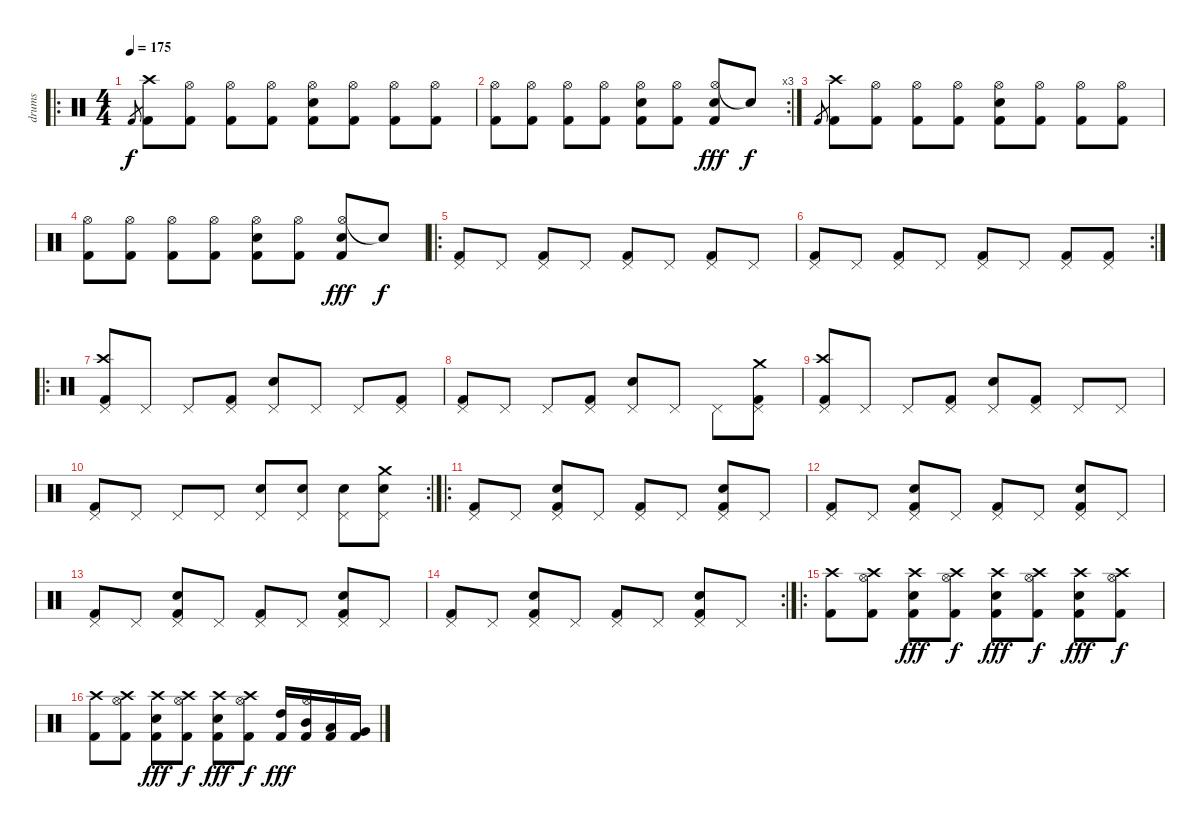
\track ("drums" "drums") {instrument percussion}
\staff {score}
\articulation defaults
\ro
\ts (4 4)
\tempo 175
\clef neutral
\ks c "Kick (hit) 2".8{gr dy f}
("Crash high (hit)" "Kick (hit) 2").8{volume 13} ("Hi-Hat (open)" "Kick (hit) 2").8 ("Hi-Hat (open)" "Kick (hit) 2").8 ("Hi-Hat (open)" "Kick (hit) 2").8 ("Hi-Hat (open)" "Electric Snare (hit)" "Kick (hit) 2").8 ("Hi-Hat (open)" "Kick (hit) 2").8 ("Hi-Hat (open)" "Kick (hit) 2").8 ("Hi-Hat (open)" "Kick (hit) 2").8 |
\rc 3
("Hi-Hat (open)" "Kick (hit) 2").8 ("Hi-Hat (open)" "Kick (hit) 2").8 ("Hi-Hat (open)" "Kick (hit) 2").8 ("Hi-Hat (open)" "Kick (hit) 2").8 ("Hi-Hat (open)" "Electric Snare (hit)" "Kick (hit) 2").8 ("Hi-Hat (open)" "Kick (hit) 2").8 ("Hi-Hat (open)" "Electric Snare (hit)" "Kick (hit) 2").8{dy fff} "Snare (hit)"{t}.8{dy f} |
"Kick (hit) 2".8{gr} ("Crash high (hit)" "Kick (hit) 2").8{volume 13} ("Hi-Hat (open)" "Kick (hit) 2").8 ("Hi-Hat (open)" "Kick (hit) 2").8 ("Hi-Hat (open)" "Kick (hit) 2").8 ("Hi-Hat (open)" "Electric Snare (hit)" "Kick (hit) 2").8 ("Hi-Hat (open)" "Kick (hit) 2").8 ("Hi-Hat (open)" "Kick (hit) 2").8 ("Hi-Hat (open)" "Kick (hit) 2").8 |
("Hi-Hat (open)" "Kick (hit) 2").8 ("Hi-Hat (open)" "Kick (hit) 2").8 ("Hi-Hat (open)" "Kick (hit) 2").8 ("Hi-Hat (open)" "Kick (hit) 2").8 ("Hi-Hat (open)" "Electric Snare (hit)" "Kick (hit) 2").8 ("Hi-Hat (open)" "Kick (hit) 2").8 ("Hi-Hat (open)" "Electric Snare (hit)" "Kick (hit) 2").8{dy fff} "Snare (hit)"{t}.8{dy f} |
\ro
("Kick (hit) 2" "Pedal Hi-Hat (hit)").8 "Pedal Hi-Hat (hit)".8 ("Kick (hit) 2" "Pedal Hi-Hat (hit)").8 "Pedal Hi-Hat (hit)".8 ("Kick (hit) 2" "Pedal Hi-Hat (hit)").8 "Pedal Hi-Hat (hit)".8 ("Kick (hit) 2" "Pedal Hi-Hat (hit)").8 "Pedal Hi-Hat (hit)".8 |
\rc 2
("Kick (hit) 2" "Pedal Hi-Hat (hit)").8 "Pedal Hi-Hat (hit)".8 ("Kick (hit) 2" "Pedal Hi-Hat (hit)").8 "Pedal Hi-Hat (hit)".8 ("Kick (hit) 2" "Pedal Hi-Hat (hit)").8 "Pedal Hi-Hat (hit)".8 ("Kick (hit) 2" "Pedal Hi-Hat (hit)").8 ("Kick (hit) 2" "Pedal Hi-Hat (hit)").8 |
\ro
("Crash high (hit)" "Kick (hit) 2" "Pedal Hi-Hat (hit)").8 "Pedal Hi-Hat (hit)".8 "Pedal Hi-Hat (hit)".8 ("Kick (hit) 2" "Pedal Hi-Hat (hit)").8 ("Snare (hit) 2" "Pedal Hi-Hat (hit)").8 "Pedal Hi-Hat (hit)".8 "Pedal Hi-Hat (hit)".8 ("Kick (hit) 2" "Pedal Hi-Hat (hit)").8 |
("Kick (hit) 2" "Pedal Hi-Hat (hit)").8 "Pedal Hi-Hat (hit)".8 "Pedal Hi-Hat (hit)".8 ("Kick (hit) 2" "Pedal Hi-Hat (hit)").8 ("Snare (hit) 2" "Pedal Hi-Hat (hit)").8 "Pedal Hi-Hat (hit)".8 "Pedal Hi-Hat (hit)".8 ("Crash medium (hit)" "Kick (hit) 2" "Pedal Hi-Hat (hit)").8 |
("Crash high (hit)" "Kick (hit) 2" "Pedal Hi-Hat (hit)").8 "Pedal Hi-Hat (hit)".8 "Pedal Hi-Hat (hit)".8 ("Kick (hit) 2" "Pedal Hi-Hat (hit)").8 ("Snare (hit) 2" "Pedal Hi-Hat (hit)").8 ("Kick (hit) 2" "Pedal Hi-Hat (hit)").8 "Pedal Hi-Hat (hit)".8 "Pedal Hi-Hat (hit)".8 |
\rc 2
("Kick (hit) 2" "Pedal Hi-Hat (hit)").8 "Pedal Hi-Hat (hit)".8 "Pedal Hi-Hat (hit)".8 "Pedal Hi-Hat (hit)".8 ("Snare (hit) 2" "Pedal Hi-Hat (hit)").8 ("Snare (hit) 2" "Pedal Hi-Hat (hit)").8 ("Snare (hit) 2" "Pedal Hi-Hat (hit)").8 ("Crash medium (hit)" "Snare (hit) 2" "Pedal Hi-Hat (hit)").8 |
\ro
("Kick (hit) 2" "Pedal Hi-Hat (hit)").8 "Pedal Hi-Hat (hit)".8 ("Snare (hit) 2" "Kick (hit) 2" "Pedal Hi-Hat (hit)").8 "Pedal Hi-Hat (hit)".8 ("Kick (hit) 2" "Pedal Hi-Hat (hit)").8 "Pedal Hi-Hat (hit)".8 ("Snare (hit) 2" "Kick (hit) 2" "Pedal Hi-Hat (hit)").8 "Pedal Hi-Hat (hit)".8 |
("Kick (hit) 2" "Pedal Hi-Hat (hit)").8 "Pedal Hi-Hat (hit)".8 ("Snare (hit) 2" "Kick (hit) 2" "Pedal Hi-Hat (hit)").8 "Pedal Hi-Hat (hit)".8 ("Kick (hit) 2" "Pedal Hi-Hat (hit)").8 "Pedal Hi-Hat (hit)".8 ("Snare (hit) 2" "Kick (hit) 2" "Pedal Hi-Hat (hit)").8 "Pedal Hi-Hat (hit)".8 |
("Kick (hit) 2" "Pedal Hi-Hat (hit)").8 "Pedal Hi-Hat (hit)".8 ("Snare (hit) 2" "Kick (hit) 2" "Pedal Hi-Hat (hit)").8 "Pedal Hi-Hat (hit)".8 ("Kick (hit) 2" "Pedal Hi-Hat (hit)").8 "Pedal Hi-Hat (hit)".8 ("Snare (hit) 2" "Kick (hit) 2" "Pedal Hi-Hat (hit)").8 "Pedal Hi-Hat (hit)".8 |
\rc 2
("Kick (hit) 2" "Pedal Hi-Hat (hit)").8 "Pedal Hi-Hat (hit)".8 ("Snare (hit) 2" "Kick (hit) 2" "Pedal Hi-Hat (hit)").8 "Pedal Hi-Hat (hit)".8 ("Kick (hit) 2" "Pedal Hi-Hat (hit)").8 "Pedal Hi-Hat (hit)".8 ("Snare (hit) 2" "Kick (hit) 2" "Pedal Hi-Hat (hit)").8 "Pedal Hi-Hat (hit)".8 |
\ro
("Crash high (hit)" "Kick (hit) 2").8{volume 13} ("Crash high (hit)" "Hi-Hat (open)" "Kick (hit) 2").8 ("Crash high (hit)" "Kick (hit) 2" "Electric Snare (hit)").8{dy fff} ("Crash high (hit)" "Hi-Hat (open)" "Kick (hit) 2").8{dy f} ("Crash high (hit)" "Kick (hit) 2" "Electric Snare (hit)").8{dy fff} ("Crash high (hit)" "Hi-Hat (open)" "Kick (hit) 2").8{dy f} ("Crash high (hit)" "Kick (hit) 2" "Electric Snare (hit)").8{dy fff} ("Crash high (hit)" "Hi-Hat (open)" "Kick (hit) 2").8{dy f} |
("Crash high (hit)" "Kick (hit) 2").8 ("Crash high (hit)" "Hi-Hat (open)" "Kick (hit) 2").8 ("Crash high (hit)" "Kick (hit) 2" "Electric Snare (hit)").8{dy fff} ("Crash high (hit)" "Hi-Hat (open)" "Kick (hit) 2").8{dy f} ("Crash high (hit)" "Kick (hit) 2" "Electric Snare (hit)").8{dy fff} ("Crash high (hit)" "Hi-Hat (open)" "Kick (hit) 2").8{dy f} ("High Tom (hit)" "Kick (hit) 2").16{dy fff} ("Mid Tom (hit)" "Hi-Hat (open)" "Kick (hit) 2").16 ("Low Tom (hit)" "Kick (hit) 2").16 ("Very Low Tom (hit)" "Kick (hit) 2").16
